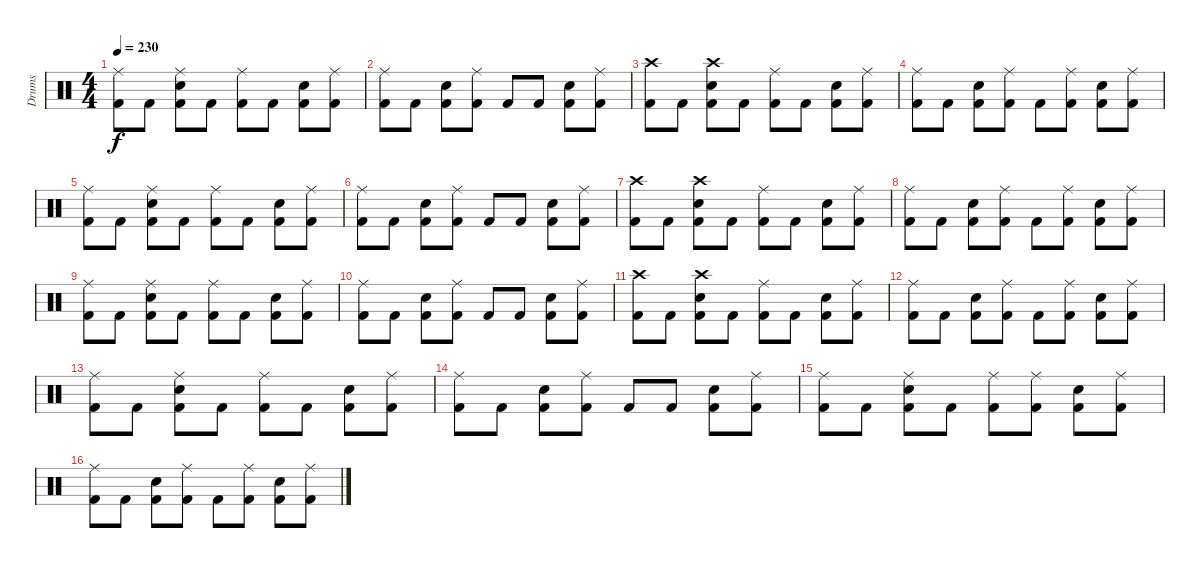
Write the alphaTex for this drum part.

\track ("Drums" "Drums") {instrument percussion}
\staff {score}
\articulation defaults
\ts (4 4)
\tempo 230
\clef neutral
\ks c
("Ride (middle)" "Kick (hit) 2").8{dy f} "Kick (hit) 2".8 ("Ride (middle)" "Electric Snare (hit)" "Kick (hit) 2").8 "Kick (hit) 2".8 ("Ride (middle)" "Kick (hit) 2").8 "Kick (hit) 2".8 ("Electric Snare (hit)" "Kick (hit) 2").8 ("Ride (middle)" "Kick (hit) 2").8 |
("Ride (middle)" "Kick (hit) 2").8 "Kick (hit) 2".8 ("Electric Snare (hit)" "Kick (hit) 2").8 ("Ride (middle)" "Kick (hit) 2").8 "Kick (hit) 2".8 "Kick (hit) 2".8 ("Electric Snare (hit)" "Kick (hit) 2").8 ("Ride (middle)" "Kick (hit) 2").8 |
("Crash high (hit)" "Kick (hit) 2").8 "Kick (hit) 2".8 ("Crash high (hit)" "Electric Snare (hit)" "Kick (hit) 2").8 "Kick (hit) 2".8 ("Ride (middle)" "Kick (hit) 2").8 "Kick (hit) 2".8 ("Electric Snare (hit)" "Kick (hit) 2").8 ("Ride (middle)" "Kick (hit) 2").8 |
("Ride (middle)" "Kick (hit) 2").8 "Kick (hit) 2".8 ("Electric Snare (hit)" "Kick (hit) 2").8 ("Ride (middle)" "Kick (hit) 2").8 "Kick (hit) 2".8 ("Ride (middle)" "Kick (hit) 2").8 ("Electric Snare (hit)" "Kick (hit) 2").8 ("Ride (middle)" "Kick (hit) 2").8 |
("Ride (middle)" "Kick (hit) 2").8 "Kick (hit) 2".8 ("Ride (middle)" "Electric Snare (hit)" "Kick (hit) 2").8 "Kick (hit) 2".8 ("Ride (middle)" "Kick (hit) 2").8 "Kick (hit) 2".8 ("Electric Snare (hit)" "Kick (hit) 2").8 ("Ride (middle)" "Kick (hit) 2").8 |
("Ride (middle)" "Kick (hit) 2").8 "Kick (hit) 2".8 ("Electric Snare (hit)" "Kick (hit) 2").8 ("Ride (middle)" "Kick (hit) 2").8 "Kick (hit) 2".8 "Kick (hit) 2".8 ("Electric Snare (hit)" "Kick (hit) 2").8 ("Ride (middle)" "Kick (hit) 2").8 |
("Crash high (hit)" "Kick (hit) 2").8 "Kick (hit) 2".8 ("Crash high (hit)" "Electric Snare (hit)" "Kick (hit) 2").8 "Kick (hit) 2".8 ("Ride (middle)" "Kick (hit) 2").8 "Kick (hit) 2".8 ("Electric Snare (hit)" "Kick (hit) 2").8 ("Ride (middle)" "Kick (hit) 2").8 |
("Ride (middle)" "Kick (hit) 2").8 "Kick (hit) 2".8 ("Electric Snare (hit)" "Kick (hit) 2").8 ("Ride (middle)" "Kick (hit) 2").8 "Kick (hit) 2".8 ("Ride (middle)" "Kick (hit) 2").8 ("Electric Snare (hit)" "Kick (hit) 2").8 ("Ride (middle)" "Kick (hit) 2").8 |
("Ride (middle)" "Kick (hit) 2").8 "Kick (hit) 2".8 ("Ride (middle)" "Electric Snare (hit)" "Kick (hit) 2").8 "Kick (hit) 2".8 ("Ride (middle)" "Kick (hit) 2").8 "Kick (hit) 2".8 ("Electric Snare (hit)" "Kick (hit) 2").8 ("Ride (middle)" "Kick (hit) 2").8 |
("Ride (middle)" "Kick (hit) 2").8 "Kick (hit) 2".8 ("Electric Snare (hit)" "Kick (hit) 2").8 ("Ride (middle)" "Kick (hit) 2").8 "Kick (hit) 2".8 "Kick (hit) 2".8 ("Electric Snare (hit)" "Kick (hit) 2").8 ("Ride (middle)" "Kick (hit) 2").8 |
("Crash high (hit)" "Kick (hit) 2").8 "Kick (hit) 2".8 ("Crash high (hit)" "Electric Snare (hit)" "Kick (hit) 2").8 "Kick (hit) 2".8 ("Ride (middle)" "Kick (hit) 2").8 "Kick (hit) 2".8 ("Electric Snare (hit)" "Kick (hit) 2").8 ("Ride (middle)" "Kick (hit) 2").8 |
("Ride (middle)" "Kick (hit) 2").8 "Kick (hit) 2".8 ("Electric Snare (hit)" "Kick (hit) 2").8 ("Ride (middle)" "Kick (hit) 2").8 "Kick (hit) 2".8 ("Ride (middle)" "Kick (hit) 2").8 ("Electric Snare (hit)" "Kick (hit) 2").8 ("Ride (middle)" "Kick (hit) 2").8 |
("Ride (middle)" "Kick (hit) 2").8 "Kick (hit) 2".8 ("Ride (middle)" "Electric Snare (hit)" "Kick (hit) 2").8 "Kick (hit) 2".8 ("Ride (middle)" "Kick (hit) 2").8 "Kick (hit) 2".8 ("Electric Snare (hit)" "Kick (hit) 2").8 ("Ride (middle)" "Kick (hit) 2").8 |
("Ride (middle)" "Kick (hit) 2").8 "Kick (hit) 2".8 ("Electric Snare (hit)" "Kick (hit) 2").8 ("Ride (middle)" "Kick (hit) 2").8 "Kick (hit) 2".8 "Kick (hit) 2".8 ("Electric Snare (hit)" "Kick (hit) 2").8 ("Ride (middle)" "Kick (hit) 2").8 |
("Ride (middle)" "Kick (hit) 2").8 "Kick (hit) 2".8 ("Ride (middle)" "Electric Snare (hit)" "Kick (hit) 2").8 "Kick (hit) 2".8 ("Ride (middle)" "Kick (hit) 2").8 ("Ride (middle)" "Kick (hit) 2").8 ("Electric Snare (hit)" "Kick (hit) 2").8 ("Ride (middle)" "Kick (hit) 2").8 |
("Ride (middle)" "Kick (hit) 2").8 "Kick (hit) 2".8 ("Electric Snare (hit)" "Kick (hit) 2").8 ("Ride (middle)" "Kick (hit) 2").8 "Kick (hit) 2".8 ("Ride (middle)" "Kick (hit) 2").8 ("Electric Snare (hit)" "Kick (hit) 2").8 ("Ride (middle)" "Kick (hit) 2").8
